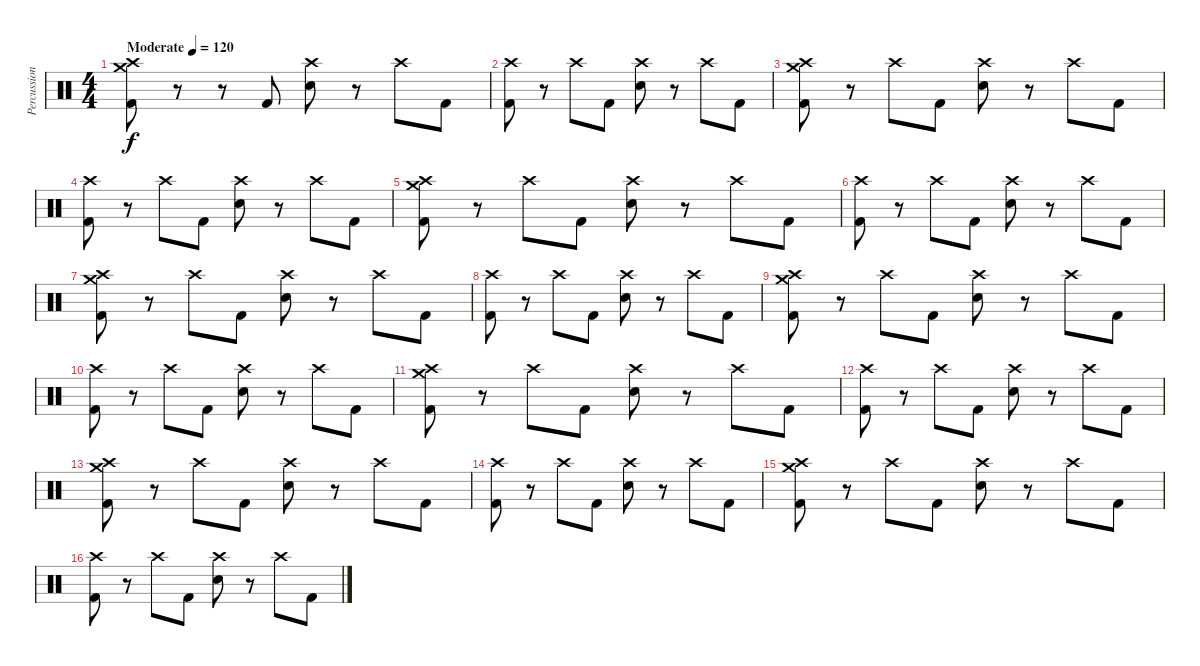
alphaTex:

\track ("Percussion" "Percussion") {instrument percussion}
\staff {score}
\articulation defaults
\ts (4 4)
\tempo (120 "Moderate")
\clef neutral
\ks c
("Kick (hit) 2" "Crash medium (hit)" "Crash high (hit)").8{dy f} r.8 r.8 "Kick (hit) 2".8 ("Electric Snare (hit)" "Crash high (hit)").8 r.8 "Crash high (hit)".8 "Kick (hit) 2".8 |
("Kick (hit) 2" "Crash high (hit)").8 r.8 "Crash high (hit)".8 "Kick (hit) 2".8 ("Electric Snare (hit)" "Crash high (hit)").8 r.8 "Crash high (hit)".8 "Kick (hit) 2".8 |
("Kick (hit) 2" "Crash medium (hit)" "Crash high (hit)").8 r.8 "Crash high (hit)".8 "Kick (hit) 2".8 ("Electric Snare (hit)" "Crash high (hit)").8 r.8 "Crash high (hit)".8 "Kick (hit) 2".8 |
("Kick (hit) 2" "Crash high (hit)").8 r.8 "Crash high (hit)".8 "Kick (hit) 2".8 ("Electric Snare (hit)" "Crash high (hit)").8 r.8 "Crash high (hit)".8 "Kick (hit) 2".8 |
("Kick (hit) 2" "Crash medium (hit)" "Crash high (hit)").8 r.8 "Crash high (hit)".8 "Kick (hit) 2".8 ("Electric Snare (hit)" "Crash high (hit)").8 r.8 "Crash high (hit)".8 "Kick (hit) 2".8 |
("Kick (hit) 2" "Crash high (hit)").8 r.8 "Crash high (hit)".8 "Kick (hit) 2".8 ("Electric Snare (hit)" "Crash high (hit)").8 r.8 "Crash high (hit)".8 "Kick (hit) 2".8 |
("Kick (hit) 2" "Crash medium (hit)" "Crash high (hit)").8 r.8 "Crash high (hit)".8 "Kick (hit) 2".8 ("Electric Snare (hit)" "Crash high (hit)").8 r.8 "Crash high (hit)".8 "Kick (hit) 2".8 |
("Kick (hit) 2" "Crash high (hit)").8 r.8 "Crash high (hit)".8 "Kick (hit) 2".8 ("Electric Snare (hit)" "Crash high (hit)").8 r.8 "Crash high (hit)".8 "Kick (hit) 2".8 |
("Kick (hit) 2" "Crash medium (hit)" "Crash high (hit)").8 r.8 "Crash high (hit)".8 "Kick (hit) 2".8 ("Electric Snare (hit)" "Crash high (hit)").8 r.8 "Crash high (hit)".8 "Kick (hit) 2".8 |
("Kick (hit) 2" "Crash high (hit)").8 r.8 "Crash high (hit)".8 "Kick (hit) 2".8 ("Electric Snare (hit)" "Crash high (hit)").8 r.8 "Crash high (hit)".8 "Kick (hit) 2".8 |
("Kick (hit) 2" "Crash medium (hit)" "Crash high (hit)").8 r.8 "Crash high (hit)".8 "Kick (hit) 2".8 ("Electric Snare (hit)" "Crash high (hit)").8 r.8 "Crash high (hit)".8 "Kick (hit) 2".8 |
("Kick (hit) 2" "Crash high (hit)").8 r.8 "Crash high (hit)".8 "Kick (hit) 2".8 ("Electric Snare (hit)" "Crash high (hit)").8 r.8 "Crash high (hit)".8 "Kick (hit) 2".8 |
("Kick (hit) 2" "Crash medium (hit)" "Crash high (hit)").8 r.8 "Crash high (hit)".8 "Kick (hit) 2".8 ("Electric Snare (hit)" "Crash high (hit)").8 r.8 "Crash high (hit)".8 "Kick (hit) 2".8 |
("Kick (hit) 2" "Crash high (hit)").8 r.8 "Crash high (hit)".8 "Kick (hit) 2".8 ("Electric Snare (hit)" "Crash high (hit)").8 r.8 "Crash high (hit)".8 "Kick (hit) 2".8 |
("Kick (hit) 2" "Crash medium (hit)" "Crash high (hit)").8 r.8 "Crash high (hit)".8 "Kick (hit) 2".8 ("Electric Snare (hit)" "Crash high (hit)").8 r.8 "Crash high (hit)".8 "Kick (hit) 2".8 |
("Kick (hit) 2" "Crash high (hit)").8 r.8 "Crash high (hit)".8 "Kick (hit) 2".8 ("Electric Snare (hit)" "Crash high (hit)").8 r.8 "Crash high (hit)".8 "Kick (hit) 2".8
